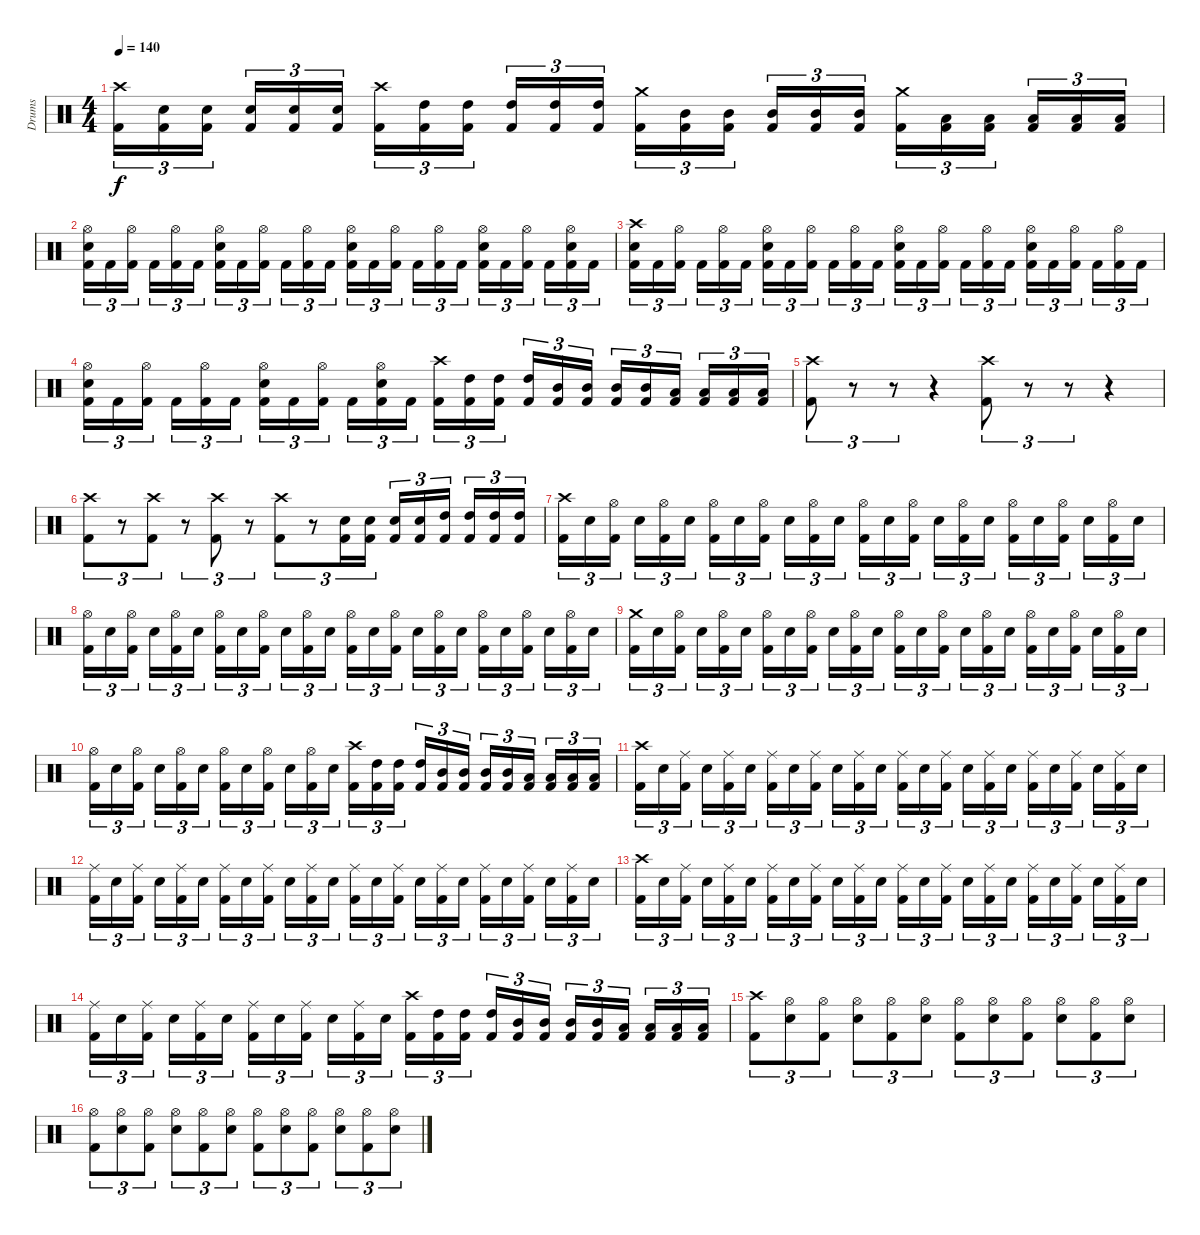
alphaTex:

\track ("Drums" "Drums") {instrument percussion}
\staff {score}
\articulation defaults
\ts (4 4)
\tempo 140
\clef neutral
\ks c
("Kick (hit) 2" "Crash high (hit)").16{tu (3 2) dy f} ("Kick (hit) 2" "Snare (hit) 2").16{tu (3 2)} ("Kick (hit) 2" "Snare (hit) 2").16{tu (3 2)} ("Kick (hit) 2" "Snare (hit) 2").16{tu (3 2)} ("Kick (hit) 2" "Snare (hit) 2").16{tu (3 2)} ("Kick (hit) 2" "Snare (hit) 2").16{tu (3 2)} ("Kick (hit) 2" "Crash high (hit)").16{tu (3 2)} ("Kick (hit) 2" "High Tom (hit)").16{tu (3 2)} ("Kick (hit) 2" "High Tom (hit)").16{tu (3 2)} ("Kick (hit) 2" "High Tom (hit)").16{tu (3 2)} ("Kick (hit) 2" "High Tom (hit)").16{tu (3 2)} ("Kick (hit) 2" "High Tom (hit)").16{tu (3 2)} ("Kick (hit) 2" "Crash medium (hit)").16{tu (3 2)} ("Kick (hit) 2" "Mid Tom (hit)").16{tu (3 2)} ("Kick (hit) 2" "Mid Tom (hit)").16{tu (3 2)} ("Kick (hit) 2" "Mid Tom (hit)").16{tu (3 2)} ("Kick (hit) 2" "Mid Tom (hit)").16{tu (3 2)} ("Kick (hit) 2" "Mid Tom (hit)").16{tu (3 2)} ("Kick (hit) 2" "Crash medium (hit)").16{tu (3 2)} ("Kick (hit) 2" "Low Tom (hit)").16{tu (3 2)} ("Kick (hit) 2" "Low Tom (hit)").16{tu (3 2)} ("Kick (hit) 2" "Low Tom (hit)").16{tu (3 2)} ("Kick (hit) 2" "Low Tom (hit)").16{tu (3 2)} ("Kick (hit) 2" "Low Tom (hit)").16{tu (3 2)} |
("Kick (hit) 2" "Snare (hit) 2" "Hi-Hat (open)").16{tu (3 2)} "Kick (hit) 2".16{tu (3 2)} ("Kick (hit) 2" "Hi-Hat (open)").16{tu (3 2)} "Kick (hit) 2".16{tu (3 2)} ("Kick (hit) 2" "Hi-Hat (open)").16{tu (3 2)} "Kick (hit) 2".16{tu (3 2)} ("Kick (hit) 2" "Snare (hit) 2" "Hi-Hat (open)").16{tu (3 2)} "Kick (hit) 2".16{tu (3 2)} ("Kick (hit) 2" "Hi-Hat (open)").16{tu (3 2)} "Kick (hit) 2".16{tu (3 2)} ("Kick (hit) 2" "Hi-Hat (open)").16{tu (3 2)} "Kick (hit) 2".16{tu (3 2)} ("Kick (hit) 2" "Snare (hit) 2" "Hi-Hat (open)").16{tu (3 2)} "Kick (hit) 2".16{tu (3 2)} ("Kick (hit) 2" "Hi-Hat (open)").16{tu (3 2)} "Kick (hit) 2".16{tu (3 2)} ("Kick (hit) 2" "Hi-Hat (open)").16{tu (3 2)} "Kick (hit) 2".16{tu (3 2)} ("Kick (hit) 2" "Snare (hit) 2" "Hi-Hat (open)").16{tu (3 2)} "Kick (hit) 2".16{tu (3 2)} ("Kick (hit) 2" "Hi-Hat (open)").16{tu (3 2)} "Kick (hit) 2".16{tu (3 2)} ("Kick (hit) 2" "Snare (hit) 2" "Hi-Hat (open)").16{tu (3 2)} "Kick (hit) 2".16{tu (3 2)} |
("Kick (hit) 2" "Snare (hit) 2" "Crash high (hit)").16{tu (3 2)} "Kick (hit) 2".16{tu (3 2)} ("Kick (hit) 2" "Hi-Hat (open)").16{tu (3 2)} "Kick (hit) 2".16{tu (3 2)} ("Kick (hit) 2" "Hi-Hat (open)").16{tu (3 2)} "Kick (hit) 2".16{tu (3 2)} ("Kick (hit) 2" "Snare (hit) 2" "Hi-Hat (open)").16{tu (3 2)} "Kick (hit) 2".16{tu (3 2)} ("Kick (hit) 2" "Hi-Hat (open)").16{tu (3 2)} "Kick (hit) 2".16{tu (3 2)} ("Kick (hit) 2" "Hi-Hat (open)").16{tu (3 2)} "Kick (hit) 2".16{tu (3 2)} ("Kick (hit) 2" "Snare (hit) 2" "Hi-Hat (open)").16{tu (3 2)} "Kick (hit) 2".16{tu (3 2)} ("Kick (hit) 2" "Hi-Hat (open)").16{tu (3 2)} "Kick (hit) 2".16{tu (3 2)} ("Kick (hit) 2" "Hi-Hat (open)").16{tu (3 2)} "Kick (hit) 2".16{tu (3 2)} ("Kick (hit) 2" "Snare (hit) 2" "Hi-Hat (open)").16{tu (3 2)} "Kick (hit) 2".16{tu (3 2)} ("Kick (hit) 2" "Hi-Hat (open)").16{tu (3 2)} "Kick (hit) 2".16{tu (3 2)} ("Kick (hit) 2" "Hi-Hat (open)").16{tu (3 2)} "Kick (hit) 2".16{tu (3 2)} |
("Kick (hit) 2" "Snare (hit) 2" "Hi-Hat (open)").16{tu (3 2)} "Kick (hit) 2".16{tu (3 2)} ("Kick (hit) 2" "Hi-Hat (open)").16{tu (3 2)} "Kick (hit) 2".16{tu (3 2)} ("Kick (hit) 2" "Hi-Hat (open)").16{tu (3 2)} "Kick (hit) 2".16{tu (3 2)} ("Kick (hit) 2" "Snare (hit) 2" "Hi-Hat (open)").16{tu (3 2)} "Kick (hit) 2".16{tu (3 2)} ("Kick (hit) 2" "Hi-Hat (open)").16{tu (3 2)} "Kick (hit) 2".16{tu (3 2)} ("Kick (hit) 2" "Snare (hit) 2" "Hi-Hat (open)").16{tu (3 2)} "Kick (hit) 2".16{tu (3 2)} ("Kick (hit) 2" "Crash high (hit)").16{tu (3 2)} ("Kick (hit) 2" "High Tom (hit)").16{tu (3 2)} ("Kick (hit) 2" "High Tom (hit)").16{tu (3 2)} ("Kick (hit) 2" "High Tom (hit)").16{tu (3 2)} ("Kick (hit) 2" "Mid Tom (hit)").16{tu (3 2)} ("Kick (hit) 2" "Mid Tom (hit)").16{tu (3 2)} ("Kick (hit) 2" "Mid Tom (hit)").16{tu (3 2)} ("Kick (hit) 2" "Mid Tom (hit)").16{tu (3 2)} ("Kick (hit) 2" "Low Tom (hit)").16{tu (3 2)} ("Kick (hit) 2" "Low Tom (hit)").16{tu (3 2)} ("Kick (hit) 2" "Low Tom (hit)").16{tu (3 2)} ("Kick (hit) 2" "Low Tom (hit)").16{tu (3 2)} |
("Kick (hit) 2" "Crash high (hit)").8{tu (3 2)} r.8{tu (3 2)} r.8{tu (3 2)} r.4 ("Kick (hit) 2" "Crash high (hit)").8{tu (3 2)} r.8{tu (3 2)} r.8{tu (3 2)} r.4 |
("Kick (hit) 2" "Crash high (hit)").8{tu (3 2)} r.8{tu (3 2)} ("Kick (hit) 2" "Crash high (hit)").8{tu (3 2)} r.8{tu (3 2)} ("Kick (hit) 2" "Crash high (hit)").8{tu (3 2)} r.8{tu (3 2)} ("Kick (hit) 2" "Crash high (hit)").8{tu (3 2)} r.8{tu (3 2)} ("Kick (hit) 2" "Snare (hit) 2").16{tu (3 2)} ("Kick (hit) 2" "Snare (hit) 2").16{tu (3 2)} ("Kick (hit) 2" "Snare (hit) 2").16{tu (3 2)} ("Kick (hit) 2" "Snare (hit) 2").16{tu (3 2)} ("Kick (hit) 2" "High Tom (hit)").16{tu (3 2)} ("Kick (hit) 2" "High Tom (hit)").16{tu (3 2)} ("Kick (hit) 2" "High Tom (hit)").16{tu (3 2)} ("Kick (hit) 2" "High Tom (hit)").16{tu (3 2)} |
("Kick (hit) 2" "Crash high (hit)").16{tu (3 2)} "Snare (hit) 2".16{tu (3 2)} ("Kick (hit) 2" "Hi-Hat (open)").16{tu (3 2)} "Snare (hit) 2".16{tu (3 2)} ("Kick (hit) 2" "Hi-Hat (open)").16{tu (3 2)} "Snare (hit) 2".16{tu (3 2)} ("Kick (hit) 2" "Hi-Hat (open)").16{tu (3 2)} "Snare (hit) 2".16{tu (3 2)} ("Kick (hit) 2" "Hi-Hat (open)").16{tu (3 2)} "Snare (hit) 2".16{tu (3 2)} ("Kick (hit) 2" "Hi-Hat (open)").16{tu (3 2)} "Snare (hit) 2".16{tu (3 2)} ("Kick (hit) 2" "Hi-Hat (open)").16{tu (3 2)} "Snare (hit) 2".16{tu (3 2)} ("Kick (hit) 2" "Hi-Hat (open)").16{tu (3 2)} "Snare (hit) 2".16{tu (3 2)} ("Kick (hit) 2" "Hi-Hat (open)").16{tu (3 2)} "Snare (hit) 2".16{tu (3 2)} ("Kick (hit) 2" "Hi-Hat (open)").16{tu (3 2)} "Snare (hit) 2".16{tu (3 2)} ("Kick (hit) 2" "Hi-Hat (open)").16{tu (3 2)} "Snare (hit) 2".16{tu (3 2)} ("Kick (hit) 2" "Hi-Hat (open)").16{tu (3 2)} "Snare (hit) 2".16{tu (3 2)} |
("Kick (hit) 2" "Hi-Hat (open)").16{tu (3 2)} "Snare (hit) 2".16{tu (3 2)} ("Kick (hit) 2" "Hi-Hat (open)").16{tu (3 2)} "Snare (hit) 2".16{tu (3 2)} ("Kick (hit) 2" "Hi-Hat (open)").16{tu (3 2)} "Snare (hit) 2".16{tu (3 2)} ("Kick (hit) 2" "Hi-Hat (open)").16{tu (3 2)} "Snare (hit) 2".16{tu (3 2)} ("Kick (hit) 2" "Hi-Hat (open)").16{tu (3 2)} "Snare (hit) 2".16{tu (3 2)} ("Kick (hit) 2" "Hi-Hat (open)").16{tu (3 2)} "Snare (hit) 2".16{tu (3 2)} ("Kick (hit) 2" "Hi-Hat (open)").16{tu (3 2)} "Snare (hit) 2".16{tu (3 2)} ("Kick (hit) 2" "Hi-Hat (open)").16{tu (3 2)} "Snare (hit) 2".16{tu (3 2)} ("Kick (hit) 2" "Hi-Hat (open)").16{tu (3 2)} "Snare (hit) 2".16{tu (3 2)} ("Kick (hit) 2" "Hi-Hat (open)").16{tu (3 2)} "Snare (hit) 2".16{tu (3 2)} ("Kick (hit) 2" "Hi-Hat (open)").16{tu (3 2)} "Snare (hit) 2".16{tu (3 2)} ("Kick (hit) 2" "Hi-Hat (open)").16{tu (3 2)} "Snare (hit) 2".16{tu (3 2)} |
("Kick (hit) 2" "Crash medium (hit)").16{tu (3 2)} "Snare (hit) 2".16{tu (3 2)} ("Kick (hit) 2" "Hi-Hat (open)").16{tu (3 2)} "Snare (hit) 2".16{tu (3 2)} ("Kick (hit) 2" "Hi-Hat (open)").16{tu (3 2)} "Snare (hit) 2".16{tu (3 2)} ("Kick (hit) 2" "Hi-Hat (open)").16{tu (3 2)} "Snare (hit) 2".16{tu (3 2)} ("Kick (hit) 2" "Hi-Hat (open)").16{tu (3 2)} "Snare (hit) 2".16{tu (3 2)} ("Kick (hit) 2" "Hi-Hat (open)").16{tu (3 2)} "Snare (hit) 2".16{tu (3 2)} ("Kick (hit) 2" "Hi-Hat (open)").16{tu (3 2)} "Snare (hit) 2".16{tu (3 2)} ("Kick (hit) 2" "Hi-Hat (open)").16{tu (3 2)} "Snare (hit) 2".16{tu (3 2)} ("Kick (hit) 2" "Hi-Hat (open)").16{tu (3 2)} "Snare (hit) 2".16{tu (3 2)} ("Kick (hit) 2" "Hi-Hat (open)").16{tu (3 2)} "Snare (hit) 2".16{tu (3 2)} ("Kick (hit) 2" "Hi-Hat (open)").16{tu (3 2)} "Snare (hit) 2".16{tu (3 2)} ("Kick (hit) 2" "Hi-Hat (open)").16{tu (3 2)} "Snare (hit) 2".16{tu (3 2)} |
("Kick (hit) 2" "Hi-Hat (open)").16{tu (3 2)} "Snare (hit) 2".16{tu (3 2)} ("Kick (hit) 2" "Hi-Hat (open)").16{tu (3 2)} "Snare (hit) 2".16{tu (3 2)} ("Kick (hit) 2" "Hi-Hat (open)").16{tu (3 2)} "Snare (hit) 2".16{tu (3 2)} ("Kick (hit) 2" "Hi-Hat (open)").16{tu (3 2)} "Snare (hit) 2".16{tu (3 2)} ("Kick (hit) 2" "Hi-Hat (open)").16{tu (3 2)} "Snare (hit) 2".16{tu (3 2)} ("Kick (hit) 2" "Hi-Hat (open)").16{tu (3 2)} "Snare (hit) 2".16{tu (3 2)} ("Kick (hit) 2" "Crash high (hit)").16{tu (3 2)} ("Kick (hit) 2" "High Tom (hit)").16{tu (3 2)} ("Kick (hit) 2" "High Tom (hit)").16{tu (3 2)} ("Kick (hit) 2" "High Tom (hit)").16{tu (3 2)} ("Kick (hit) 2" "Mid Tom (hit)").16{tu (3 2)} ("Kick (hit) 2" "Mid Tom (hit)").16{tu (3 2)} ("Kick (hit) 2" "Mid Tom (hit)").16{tu (3 2)} ("Kick (hit) 2" "Mid Tom (hit)").16{tu (3 2)} ("Kick (hit) 2" "Low Tom (hit)").16{tu (3 2)} ("Kick (hit) 2" "Low Tom (hit)").16{tu (3 2)} ("Kick (hit) 2" "Low Tom (hit)").16{tu (3 2)} ("Kick (hit) 2" "Low Tom (hit)").16{tu (3 2)} |
("Kick (hit) 2" "Crash high (hit)").16{tu (3 2)} "Snare (hit) 2".16{tu (3 2)} ("Kick (hit) 2" "Ride (middle)").16{tu (3 2)} "Snare (hit) 2".16{tu (3 2)} ("Kick (hit) 2" "Ride (middle)").16{tu (3 2)} "Snare (hit) 2".16{tu (3 2)} ("Kick (hit) 2" "Ride (middle)").16{tu (3 2)} "Snare (hit) 2".16{tu (3 2)} ("Kick (hit) 2" "Ride (middle)").16{tu (3 2)} "Snare (hit) 2".16{tu (3 2)} ("Kick (hit) 2" "Ride (middle)").16{tu (3 2)} "Snare (hit) 2".16{tu (3 2)} ("Kick (hit) 2" "Ride (middle)").16{tu (3 2)} "Snare (hit) 2".16{tu (3 2)} ("Kick (hit) 2" "Ride (middle)").16{tu (3 2)} "Snare (hit) 2".16{tu (3 2)} ("Kick (hit) 2" "Ride (middle)").16{tu (3 2)} "Snare (hit) 2".16{tu (3 2)} ("Kick (hit) 2" "Ride (middle)").16{tu (3 2)} "Snare (hit) 2".16{tu (3 2)} ("Kick (hit) 2" "Ride (middle)").16{tu (3 2)} "Snare (hit) 2".16{tu (3 2)} ("Kick (hit) 2" "Ride (middle)").16{tu (3 2)} "Snare (hit) 2".16{tu (3 2)} |
("Kick (hit) 2" "Ride (middle)").16{tu (3 2)} "Snare (hit) 2".16{tu (3 2)} ("Kick (hit) 2" "Ride (middle)").16{tu (3 2)} "Snare (hit) 2".16{tu (3 2)} ("Kick (hit) 2" "Ride (middle)").16{tu (3 2)} "Snare (hit) 2".16{tu (3 2)} ("Kick (hit) 2" "Ride (middle)").16{tu (3 2)} "Snare (hit) 2".16{tu (3 2)} ("Kick (hit) 2" "Ride (middle)").16{tu (3 2)} "Snare (hit) 2".16{tu (3 2)} ("Kick (hit) 2" "Ride (middle)").16{tu (3 2)} "Snare (hit) 2".16{tu (3 2)} ("Kick (hit) 2" "Ride (middle)").16{tu (3 2)} "Snare (hit) 2".16{tu (3 2)} ("Kick (hit) 2" "Ride (middle)").16{tu (3 2)} "Snare (hit) 2".16{tu (3 2)} ("Kick (hit) 2" "Ride (middle)").16{tu (3 2)} "Snare (hit) 2".16{tu (3 2)} ("Kick (hit) 2" "Ride (middle)").16{tu (3 2)} "Snare (hit) 2".16{tu (3 2)} ("Kick (hit) 2" "Ride (middle)").16{tu (3 2)} "Snare (hit) 2".16{tu (3 2)} ("Kick (hit) 2" "Ride (middle)").16{tu (3 2)} "Snare (hit) 2".16{tu (3 2)} |
("Kick (hit) 2" "Crash high (hit)").16{tu (3 2)} "Snare (hit) 2".16{tu (3 2)} ("Kick (hit) 2" "Ride (middle)").16{tu (3 2)} "Snare (hit) 2".16{tu (3 2)} ("Kick (hit) 2" "Ride (middle)").16{tu (3 2)} "Snare (hit) 2".16{tu (3 2)} ("Kick (hit) 2" "Ride (middle)").16{tu (3 2)} "Snare (hit) 2".16{tu (3 2)} ("Kick (hit) 2" "Ride (middle)").16{tu (3 2)} "Snare (hit) 2".16{tu (3 2)} ("Kick (hit) 2" "Ride (middle)").16{tu (3 2)} "Snare (hit) 2".16{tu (3 2)} ("Kick (hit) 2" "Ride (middle)").16{tu (3 2)} "Snare (hit) 2".16{tu (3 2)} ("Kick (hit) 2" "Ride (middle)").16{tu (3 2)} "Snare (hit) 2".16{tu (3 2)} ("Kick (hit) 2" "Ride (middle)").16{tu (3 2)} "Snare (hit) 2".16{tu (3 2)} ("Kick (hit) 2" "Ride (middle)").16{tu (3 2)} "Snare (hit) 2".16{tu (3 2)} ("Kick (hit) 2" "Ride (middle)").16{tu (3 2)} "Snare (hit) 2".16{tu (3 2)} ("Kick (hit) 2" "Ride (middle)").16{tu (3 2)} "Snare (hit) 2".16{tu (3 2)} |
("Kick (hit) 2" "Ride (middle)").16{tu (3 2)} "Snare (hit) 2".16{tu (3 2)} ("Kick (hit) 2" "Ride (middle)").16{tu (3 2)} "Snare (hit) 2".16{tu (3 2)} ("Kick (hit) 2" "Ride (middle)").16{tu (3 2)} "Snare (hit) 2".16{tu (3 2)} ("Kick (hit) 2" "Ride (middle)").16{tu (3 2)} "Snare (hit) 2".16{tu (3 2)} ("Kick (hit) 2" "Ride (middle)").16{tu (3 2)} "Snare (hit) 2".16{tu (3 2)} ("Kick (hit) 2" "Ride (middle)").16{tu (3 2)} "Snare (hit) 2".16{tu (3 2)} ("Kick (hit) 2" "Crash high (hit)").16{tu (3 2)} ("Kick (hit) 2" "High Tom (hit)").16{tu (3 2)} ("Kick (hit) 2" "High Tom (hit)").16{tu (3 2)} ("Kick (hit) 2" "High Tom (hit)").16{tu (3 2)} ("Kick (hit) 2" "Mid Tom (hit)").16{tu (3 2)} ("Kick (hit) 2" "Mid Tom (hit)").16{tu (3 2)} ("Kick (hit) 2" "Mid Tom (hit)").16{tu (3 2)} ("Kick (hit) 2" "Mid Tom (hit)").16{tu (3 2)} ("Kick (hit) 2" "Low Tom (hit)").16{tu (3 2)} ("Kick (hit) 2" "Low Tom (hit)").16{tu (3 2)} ("Kick (hit) 2" "Low Tom (hit)").16{tu (3 2)} ("Kick (hit) 2" "Low Tom (hit)").16{tu (3 2)} |
("Kick (hit) 2" "Crash high (hit)").8{tu (3 2)} ("Snare (hit) 2" "Hi-Hat (open)").8{tu (3 2)} ("Kick (hit) 2" "Hi-Hat (open)").8{tu (3 2)} ("Snare (hit) 2" "Hi-Hat (open)").8{tu (3 2)} ("Kick (hit) 2" "Hi-Hat (open)").8{tu (3 2)} ("Snare (hit) 2" "Hi-Hat (open)").8{tu (3 2)} ("Kick (hit) 2" "Hi-Hat (open)").8{tu (3 2)} ("Snare (hit) 2" "Hi-Hat (open)").8{tu (3 2)} ("Kick (hit) 2" "Hi-Hat (open)").8{tu (3 2)} ("Snare (hit) 2" "Hi-Hat (open)").8{tu (3 2)} ("Kick (hit) 2" "Hi-Hat (open)").8{tu (3 2)} ("Snare (hit) 2" "Hi-Hat (open)").8{tu (3 2)} |
("Kick (hit) 2" "Hi-Hat (open)").8{tu (3 2)} ("Snare (hit) 2" "Hi-Hat (open)").8{tu (3 2)} ("Kick (hit) 2" "Hi-Hat (open)").8{tu (3 2)} ("Snare (hit) 2" "Hi-Hat (open)").8{tu (3 2)} ("Kick (hit) 2" "Hi-Hat (open)").8{tu (3 2)} ("Snare (hit) 2" "Hi-Hat (open)").8{tu (3 2)} ("Kick (hit) 2" "Hi-Hat (open)").8{tu (3 2)} ("Snare (hit) 2" "Hi-Hat (open)").8{tu (3 2)} ("Kick (hit) 2" "Hi-Hat (open)").8{tu (3 2)} ("Snare (hit) 2" "Hi-Hat (open)").8{tu (3 2)} ("Kick (hit) 2" "Hi-Hat (open)").8{tu (3 2)} ("Snare (hit) 2" "Hi-Hat (open)").8{tu (3 2)}
